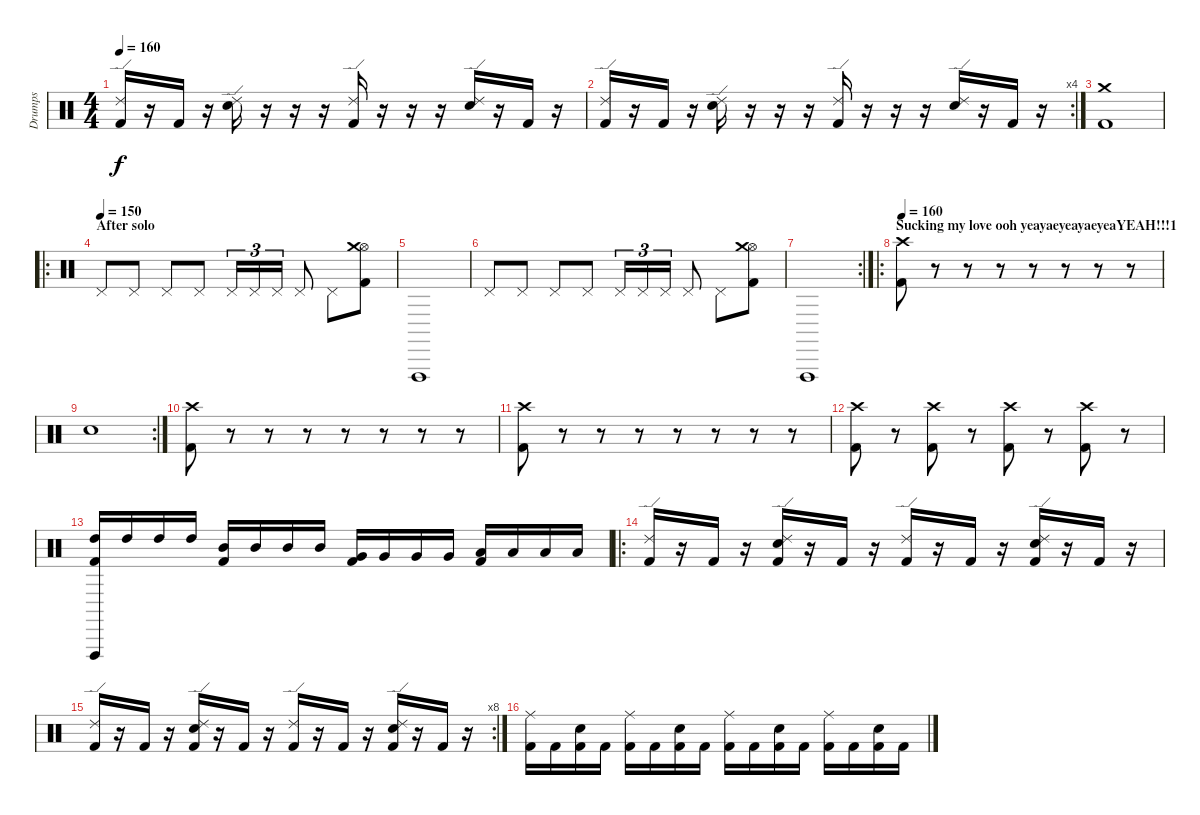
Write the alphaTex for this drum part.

\track ("Drumps" "Drumps") {instrument percussion}
\staff {score}
\articulation defaults
\ts (4 4)
\tempo 160
\clef neutral
\ks c
("Ride (edge) 2" "Kick (hit) 2").16{dy f} r.16 "Kick (hit) 2".16 r.16 ("Ride (edge) 2" "Electric Snare (hit)").16 r.16 r.16 r.16 ("Ride (edge) 2" "Kick (hit) 2").16 r.16 r.16 r.16 ("Ride (edge) 2" "Electric Snare (hit)").16 r.16 "Kick (hit) 2".16 r.16 |
\rc 4
("Ride (edge) 2" "Kick (hit) 2").16 r.16 "Kick (hit) 2".16 r.16 ("Ride (edge) 2" "Electric Snare (hit)").16 r.16 r.16 r.16 ("Ride (edge) 2" "Kick (hit) 2").16 r.16 r.16 r.16 ("Ride (edge) 2" "Electric Snare (hit)").16 r.16 "Kick (hit) 2".16 r.16 |
("Kick (hit) 2" "Crash medium (hit)").1 |
\ro
\section ("" "After solo")
\tempo (150)
"Pedal Hi-Hat (hit)".8 "Pedal Hi-Hat (hit)".8 "Pedal Hi-Hat (hit)".8 "Pedal Hi-Hat (hit)".8 "Pedal Hi-Hat (hit)".16{tu (3 2)} "Pedal Hi-Hat (hit)".16{tu (3 2)} "Pedal Hi-Hat (hit)".16{tu (3 2)} "Pedal Hi-Hat (hit)".8 "Pedal Hi-Hat (hit)".8 ("Hi-Hat (open)" "Kick (hit) 2" "Crash medium (hit)").8 |
"Vibraslap (hit)".1 |
"Pedal Hi-Hat (hit)".8 "Pedal Hi-Hat (hit)".8 "Pedal Hi-Hat (hit)".8 "Pedal Hi-Hat (hit)".8 "Pedal Hi-Hat (hit)".16{tu (3 2)} "Pedal Hi-Hat (hit)".16{tu (3 2)} "Pedal Hi-Hat (hit)".16{tu (3 2)} "Pedal Hi-Hat (hit)".8 "Pedal Hi-Hat (hit)".8 ("Hi-Hat (open)" "Kick (hit) 2" "Crash medium (hit)").8 |
\rc 2 "Vibraslap (hit)".1
|
\ro
\section ("" "Sucking my love ooh yeayaeyeayaeyeaYEAH!!!1")
\tempo 160
("Crash high (hit)" "Kick (hit) 2").8 r.8 r.8 r.8 r.8 r.8 r.8 r.8 |
\rc 2 "Snare (hit)".1
|
("Crash high (hit)" "Kick (hit) 2").8 r.8 r.8 r.8 r.8 r.8 r.8 r.8 |
("Crash high (hit)" "Kick (hit) 2").8 r.8 r.8 r.8 r.8 r.8 r.8 r.8 |
("Crash high (hit)" "Kick (hit) 2").8 r.8 ("Crash high (hit)" "Kick (hit) 2").8 r.8 ("Crash high (hit)" "Kick (hit) 2").8 r.8 ("Crash high (hit)" "Kick (hit) 2").8 r.8 |
("Vibraslap (hit)" "High Tom (hit)" "Kick (hit) 2").16 "High Tom (hit)".16 "High Tom (hit)".16 "High Tom (hit)".16 ("Mid Tom (hit)" "Kick (hit) 2").16 "Mid Tom (hit)".16 "Mid Tom (hit)".16 "Mid Tom (hit)".16 ("Very Low Tom (hit)" "Kick (hit) 2").16 "Very Low Tom (hit)".16 "Very Low Tom (hit)".16 "Very Low Tom (hit)".16 ("Low Floor Tom (hit)" "Kick (hit) 2").16 "Low Floor Tom (hit)".16 "Low Floor Tom (hit)".16 "Low Floor Tom (hit)".16 |
\ro
("Ride (edge) 2" "Kick (hit) 2").16 r.16 "Kick (hit) 2".16 r.16 ("Ride (edge) 2" "Electric Snare (hit)" "Kick (hit) 2").16 r.16 "Kick (hit) 2".16 r.16 ("Ride (edge) 2" "Kick (hit) 2").16 r.16 "Kick (hit) 2".16 r.16 ("Ride (edge) 2" "Electric Snare (hit)" "Kick (hit) 2").16 r.16 "Kick (hit) 2".16 r.16 |
\rc 8
("Ride (edge) 2" "Kick (hit) 2").16 r.16 "Kick (hit) 2".16 r.16 ("Ride (edge) 2" "Electric Snare (hit)" "Kick (hit) 2").16 r.16 "Kick (hit) 2".16 r.16 ("Ride (edge) 2" "Kick (hit) 2").16 r.16 "Kick (hit) 2".16 r.16 ("Ride (edge) 2" "Electric Snare (hit)" "Kick (hit) 2").16 r.16 "Kick (hit) 2".16 r.16 |
("Ride (middle)" "Kick (hit) 2").16 "Kick (hit) 2".16 ("Electric Snare (hit)" "Kick (hit) 2").16 "Kick (hit) 2".16 ("Ride (middle)" "Kick (hit) 2").16 "Kick (hit) 2".16 ("Electric Snare (hit)" "Kick (hit) 2").16 "Kick (hit) 2".16 ("Ride (middle)" "Kick (hit) 2").16 "Kick (hit) 2".16 ("Electric Snare (hit)" "Kick (hit) 2").16 "Kick (hit) 2".16 ("Ride (middle)" "Kick (hit) 2").16 "Kick (hit) 2".16 ("Electric Snare (hit)" "Kick (hit) 2").16 "Kick (hit) 2".16
